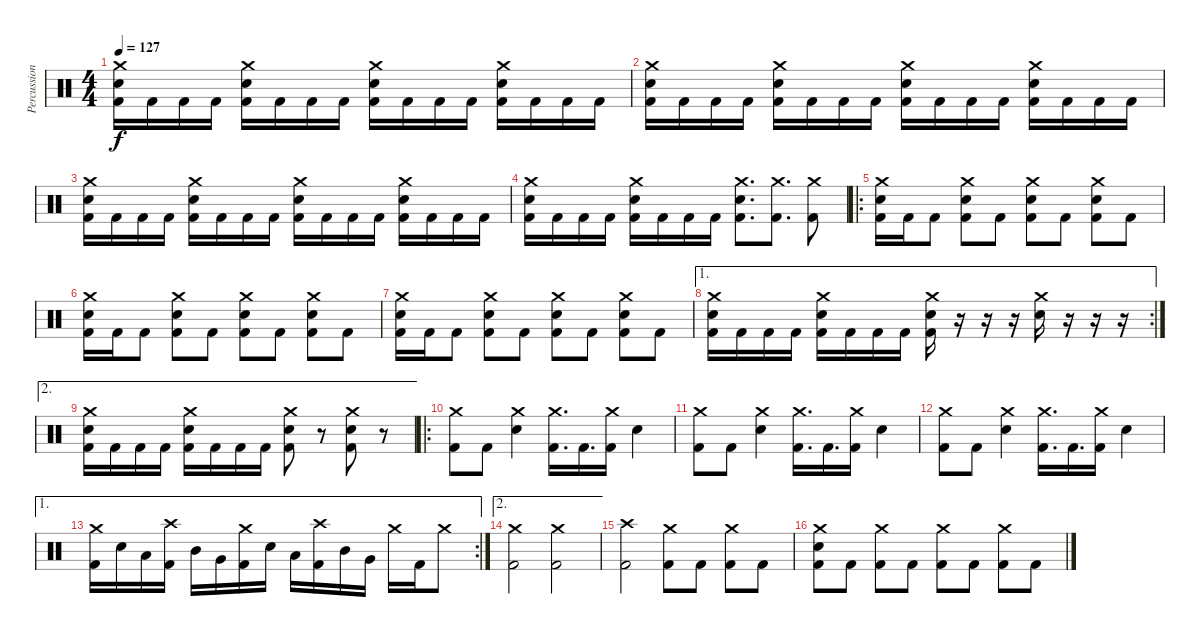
\track ("Percussion" "Percussion") {instrument percussion}
\staff {score}
\articulation defaults
\ts (4 4)
\tempo 127
\clef neutral
\ks c
("Crash medium (hit)" "Electric Snare (hit)" "Kick (hit) 2").16{dy f} "Kick (hit) 2".16 "Kick (hit) 2".16 "Kick (hit) 2".16 ("Crash medium (hit)" "Electric Snare (hit)" "Kick (hit) 2").16 "Kick (hit) 2".16 "Kick (hit) 2".16 "Kick (hit) 2".16 ("Crash medium (hit)" "Electric Snare (hit)" "Kick (hit) 2").16 "Kick (hit) 2".16 "Kick (hit) 2".16 "Kick (hit) 2".16 ("Crash medium (hit)" "Electric Snare (hit)" "Kick (hit) 2").16 "Kick (hit) 2".16 "Kick (hit) 2".16 "Kick (hit) 2".16 |
("Crash medium (hit)" "Electric Snare (hit)" "Kick (hit) 2").16 "Kick (hit) 2".16 "Kick (hit) 2".16 "Kick (hit) 2".16 ("Crash medium (hit)" "Electric Snare (hit)" "Kick (hit) 2").16 "Kick (hit) 2".16 "Kick (hit) 2".16 "Kick (hit) 2".16 ("Crash medium (hit)" "Electric Snare (hit)" "Kick (hit) 2").16 "Kick (hit) 2".16 "Kick (hit) 2".16 "Kick (hit) 2".16 ("Crash medium (hit)" "Electric Snare (hit)" "Kick (hit) 2").16 "Kick (hit) 2".16 "Kick (hit) 2".16 "Kick (hit) 2".16 |
("Crash medium (hit)" "Electric Snare (hit)" "Kick (hit) 2").16 "Kick (hit) 2".16 "Kick (hit) 2".16 "Kick (hit) 2".16 ("Crash medium (hit)" "Electric Snare (hit)" "Kick (hit) 2").16 "Kick (hit) 2".16 "Kick (hit) 2".16 "Kick (hit) 2".16 ("Crash medium (hit)" "Electric Snare (hit)" "Kick (hit) 2").16 "Kick (hit) 2".16 "Kick (hit) 2".16 "Kick (hit) 2".16 ("Crash medium (hit)" "Electric Snare (hit)" "Kick (hit) 2").16 "Kick (hit) 2".16 "Kick (hit) 2".16 "Kick (hit) 2".16 |
("Crash medium (hit)" "Electric Snare (hit)" "Kick (hit) 2").16 "Kick (hit) 2".16 "Kick (hit) 2".16 "Kick (hit) 2".16 ("Crash medium (hit)" "Electric Snare (hit)" "Kick (hit) 2").16 "Kick (hit) 2".16 "Kick (hit) 2".16 "Kick (hit) 2".16 ("Crash medium (hit)" "Electric Snare (hit)" "Kick (hit) 2").8{d} ("Crash medium (hit)" "Kick (hit) 2").8{d} ("Crash medium (hit)" "Kick (hit) 2").8 |
\ro
("Crash medium (hit)" "Electric Snare (hit)" "Kick (hit) 2").16 "Kick (hit) 2".16 "Kick (hit) 2".8 ("Crash medium (hit)" "Electric Snare (hit)" "Kick (hit) 2").8 "Kick (hit) 2".8 ("Crash medium (hit)" "Electric Snare (hit)" "Kick (hit) 2").8 "Kick (hit) 2".8 ("Crash medium (hit)" "Electric Snare (hit)" "Kick (hit) 2").8 "Kick (hit) 2".8 |
("Crash medium (hit)" "Electric Snare (hit)" "Kick (hit) 2").16 "Kick (hit) 2".16 "Kick (hit) 2".8 ("Crash medium (hit)" "Electric Snare (hit)" "Kick (hit) 2").8 "Kick (hit) 2".8 ("Crash medium (hit)" "Electric Snare (hit)" "Kick (hit) 2").8 "Kick (hit) 2".8 ("Crash medium (hit)" "Electric Snare (hit)" "Kick (hit) 2").8 "Kick (hit) 2".8 |
("Crash medium (hit)" "Electric Snare (hit)" "Kick (hit) 2").16 "Kick (hit) 2".16 "Kick (hit) 2".8 ("Crash medium (hit)" "Electric Snare (hit)" "Kick (hit) 2").8 "Kick (hit) 2".8 ("Crash medium (hit)" "Electric Snare (hit)" "Kick (hit) 2").8 "Kick (hit) 2".8 ("Crash medium (hit)" "Electric Snare (hit)" "Kick (hit) 2").8 "Kick (hit) 2".8 |
\ae 1
\rc 2
("Crash medium (hit)" "Electric Snare (hit)" "Kick (hit) 2").16 "Kick (hit) 2".16 "Kick (hit) 2".16 "Kick (hit) 2".16 ("Crash medium (hit)" "Electric Snare (hit)" "Kick (hit) 2").16 "Kick (hit) 2".16 "Kick (hit) 2".16 "Kick (hit) 2".16 ("Crash medium (hit)" "Electric Snare (hit)" "Kick (hit) 2").16 r.16 r.16 r.16 ("Crash medium (hit)" "Electric Snare (hit)").16 r.16 r.16 r.16 |
\ae 2
("Crash medium (hit)" "Electric Snare (hit)" "Kick (hit) 2").16 "Kick (hit) 2".16 "Kick (hit) 2".16 "Kick (hit) 2".16 ("Crash medium (hit)" "Electric Snare (hit)" "Kick (hit) 2").16 "Kick (hit) 2".16 "Kick (hit) 2".16 "Kick (hit) 2".16 ("Crash medium (hit)" "Electric Snare (hit)" "Kick (hit) 2").8 r.8 ("Crash medium (hit)" "Electric Snare (hit)" "Kick (hit) 2").8 r.8 |
\ro
("Crash medium (hit)" "Kick (hit) 2").8 "Kick (hit) 2".8 ("Crash medium (hit)" "Electric Snare (hit)").4 ("Crash medium (hit)" "Kick (hit) 2").16{d} "Kick (hit) 2".16{d} ("Crash medium (hit)" "Kick (hit) 2").16 "Electric Snare (hit)".4 |
("Crash medium (hit)" "Kick (hit) 2").8 "Kick (hit) 2".8 ("Crash medium (hit)" "Electric Snare (hit)").4 ("Crash medium (hit)" "Kick (hit) 2").16{d} "Kick (hit) 2".16{d} ("Crash medium (hit)" "Kick (hit) 2").16 "Electric Snare (hit)".4 |
("Crash medium (hit)" "Kick (hit) 2").8 "Kick (hit) 2".8 ("Crash medium (hit)" "Electric Snare (hit)").4 ("Crash medium (hit)" "Kick (hit) 2").16{d} "Kick (hit) 2".16{d} ("Crash medium (hit)" "Kick (hit) 2").16 "Electric Snare (hit)".4 |
\ae 1
\rc 2
("Crash medium (hit)" "Kick (hit) 2").16 "Electric Snare (hit)".16 "Low Tom (hit)".16 ("Crash high (hit)" "Kick (hit) 2").16 "Mid Tom (hit)".16 "Very Low Tom (hit)".16 ("Crash medium (hit)" "Kick (hit) 2").16 "Electric Snare (hit)".16 "Low Tom (hit)".16 ("Crash high (hit)" "Kick (hit) 2").16 "Mid Tom (hit)".16 "Very Low Tom (hit)".16 "Crash medium (hit)".16 "Kick (hit) 2".16 "Crash medium (hit)".8 |
\ae 2
("Crash medium (hit)" "Kick (hit) 2").2 ("Crash medium (hit)" "Kick (hit) 2").2 |
("Crash high (hit)" "Kick (hit) 2").2 ("Crash medium (hit)" "Kick (hit) 2").8 "Kick (hit) 2".8 ("Crash medium (hit)" "Kick (hit) 2").8 "Kick (hit) 2".8 |
("Crash medium (hit)" "Electric Snare (hit)" "Kick (hit) 2").8 "Kick (hit) 2".8 ("Crash medium (hit)" "Kick (hit) 2").8 "Kick (hit) 2".8 ("Crash medium (hit)" "Kick (hit) 2").8 "Kick (hit) 2".8 ("Crash medium (hit)" "Kick (hit) 2").8 "Kick (hit) 2".8
